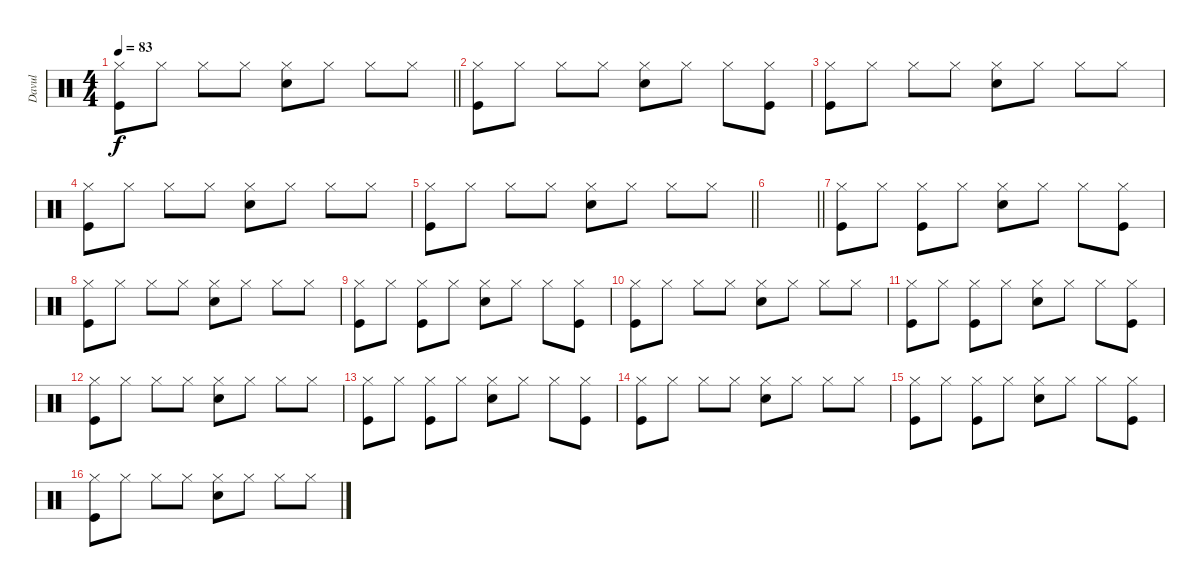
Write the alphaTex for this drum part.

\track ("Davul" "Davul") {instrument percussion}
\staff {score}
\articulation defaults
\ts (4 4)
\tempo 83
\clef neutral
\barLineRight lightlight
\ks c
("Hi-Hat (closed)" "Kick (hit)").8{dy f} "Hi-Hat (closed)".8 "Hi-Hat (closed)".8 "Hi-Hat (closed)".8 ("Hi-Hat (closed)" "Electric Snare (hit)").8 "Hi-Hat (closed)".8 "Hi-Hat (closed)".8 "Hi-Hat (closed)".8 |
("Hi-Hat (closed)" "Kick (hit)").8 "Hi-Hat (closed)".8 "Hi-Hat (closed)".8 "Hi-Hat (closed)".8 ("Hi-Hat (closed)" "Electric Snare (hit)").8 "Hi-Hat (closed)".8 "Hi-Hat (closed)".8 ("Hi-Hat (closed)" "Kick (hit)").8 |
("Hi-Hat (closed)" "Kick (hit)").8 "Hi-Hat (closed)".8 "Hi-Hat (closed)".8 "Hi-Hat (closed)".8 ("Hi-Hat (closed)" "Electric Snare (hit)").8 "Hi-Hat (closed)".8 "Hi-Hat (closed)".8 "Hi-Hat (closed)".8 |
("Hi-Hat (closed)" "Kick (hit)").8 "Hi-Hat (closed)".8 "Hi-Hat (closed)".8 "Hi-Hat (closed)".8 ("Hi-Hat (closed)" "Electric Snare (hit)").8 "Hi-Hat (closed)".8 "Hi-Hat (closed)".8 "Hi-Hat (closed)".8 |
\barLineRight lightlight
("Hi-Hat (closed)" "Kick (hit)").8 "Hi-Hat (closed)".8 "Hi-Hat (closed)".8 "Hi-Hat (closed)".8 ("Hi-Hat (closed)" "Electric Snare (hit)").8 "Hi-Hat (closed)".8 "Hi-Hat (closed)".8 "Hi-Hat (closed)".8 |
\barLineRight lightlight
|
("Hi-Hat (closed)" "Kick (hit)").8 "Hi-Hat (closed)".8 ("Hi-Hat (closed)" "Kick (hit)").8 "Hi-Hat (closed)".8 ("Hi-Hat (closed)" "Electric Snare (hit)").8 "Hi-Hat (closed)".8 "Hi-Hat (closed)".8 ("Hi-Hat (closed)" "Kick (hit)").8 |
("Hi-Hat (closed)" "Kick (hit)").8 "Hi-Hat (closed)".8 "Hi-Hat (closed)".8 "Hi-Hat (closed)".8 ("Hi-Hat (closed)" "Electric Snare (hit)").8 "Hi-Hat (closed)".8 "Hi-Hat (closed)".8 "Hi-Hat (closed)".8 |
("Hi-Hat (closed)" "Kick (hit)").8 "Hi-Hat (closed)".8 ("Hi-Hat (closed)" "Kick (hit)").8 "Hi-Hat (closed)".8 ("Hi-Hat (closed)" "Electric Snare (hit)").8 "Hi-Hat (closed)".8 "Hi-Hat (closed)".8 ("Hi-Hat (closed)" "Kick (hit)").8 |
("Hi-Hat (closed)" "Kick (hit)").8 "Hi-Hat (closed)".8 "Hi-Hat (closed)".8 "Hi-Hat (closed)".8 ("Hi-Hat (closed)" "Electric Snare (hit)").8 "Hi-Hat (closed)".8 "Hi-Hat (closed)".8 "Hi-Hat (closed)".8 |
("Hi-Hat (closed)" "Kick (hit)").8 "Hi-Hat (closed)".8 ("Hi-Hat (closed)" "Kick (hit)").8 "Hi-Hat (closed)".8 ("Hi-Hat (closed)" "Electric Snare (hit)").8 "Hi-Hat (closed)".8 "Hi-Hat (closed)".8 ("Hi-Hat (closed)" "Kick (hit)").8 |
("Hi-Hat (closed)" "Kick (hit)").8 "Hi-Hat (closed)".8 "Hi-Hat (closed)".8 "Hi-Hat (closed)".8 ("Hi-Hat (closed)" "Electric Snare (hit)").8 "Hi-Hat (closed)".8 "Hi-Hat (closed)".8 "Hi-Hat (closed)".8 |
("Hi-Hat (closed)" "Kick (hit)").8 "Hi-Hat (closed)".8 ("Hi-Hat (closed)" "Kick (hit)").8 "Hi-Hat (closed)".8 ("Hi-Hat (closed)" "Electric Snare (hit)").8 "Hi-Hat (closed)".8 "Hi-Hat (closed)".8 ("Hi-Hat (closed)" "Kick (hit)").8 |
("Hi-Hat (closed)" "Kick (hit)").8 "Hi-Hat (closed)".8 "Hi-Hat (closed)".8 "Hi-Hat (closed)".8 ("Hi-Hat (closed)" "Electric Snare (hit)").8 "Hi-Hat (closed)".8 "Hi-Hat (closed)".8 "Hi-Hat (closed)".8 |
("Hi-Hat (closed)" "Kick (hit)").8 "Hi-Hat (closed)".8 ("Hi-Hat (closed)" "Kick (hit)").8 "Hi-Hat (closed)".8 ("Hi-Hat (closed)" "Electric Snare (hit)").8 "Hi-Hat (closed)".8 "Hi-Hat (closed)".8 ("Hi-Hat (closed)" "Kick (hit)").8 |
("Hi-Hat (closed)" "Kick (hit)").8 "Hi-Hat (closed)".8 "Hi-Hat (closed)".8 "Hi-Hat (closed)".8 ("Hi-Hat (closed)" "Electric Snare (hit)").8 "Hi-Hat (closed)".8 "Hi-Hat (closed)".8 "Hi-Hat (closed)".8
